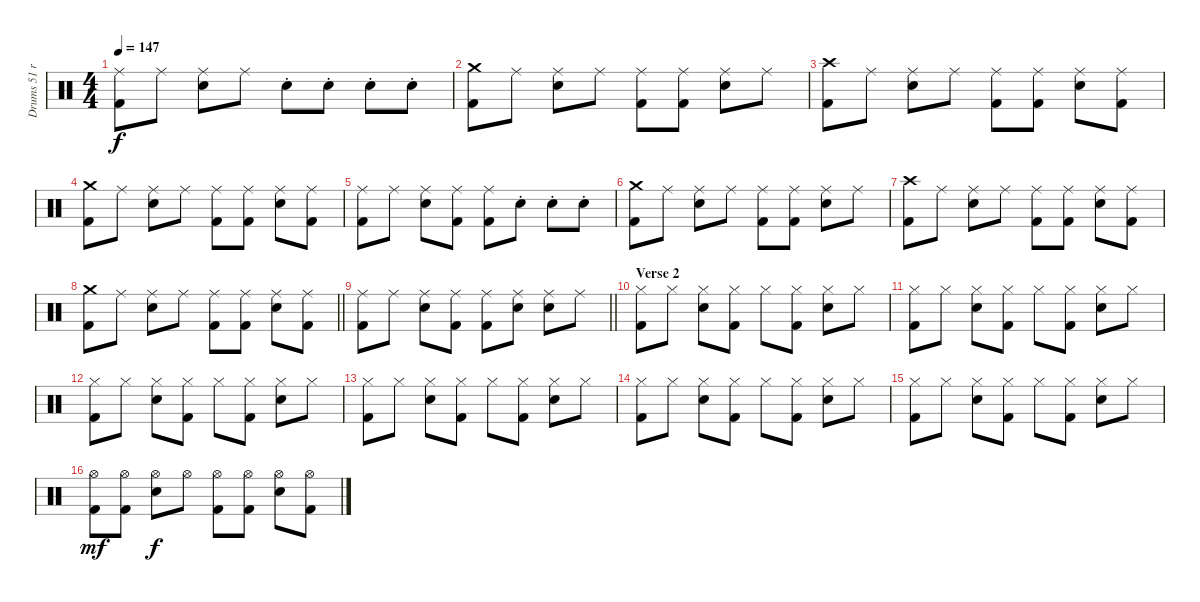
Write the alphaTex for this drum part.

\track ("Drums 51 ride" "Drums 51 r") {mute instrument percussion}
\staff {score}
\articulation defaults
\ts (4 4)
\tempo 147
\clef neutral
\ks c
("Ride (middle)" "Kick (hit) 2").8{dy f} "Ride (middle)".8 ("Ride (middle)" "Snare (hit) 2").8 "Ride (middle)".8 "Snare (hit) 2"{st}.8 "Snare (hit) 2"{st}.8 "Snare (hit) 2"{st}.8 "Snare (hit) 2"{st}.8 |
("Crash medium (hit)" "Kick (hit) 2").8 "Ride (middle)".8 ("Ride (middle)" "Snare (hit) 2").8 "Ride (middle)".8 ("Ride (middle)" "Kick (hit) 2").8 ("Ride (middle)" "Kick (hit) 2").8 ("Ride (middle)" "Snare (hit) 2").8 "Ride (middle)".8 |
("Crash high (hit)" "Kick (hit) 2").8 "Ride (middle)".8 ("Ride (middle)" "Snare (hit) 2").8 "Ride (middle)".8 ("Ride (middle)" "Kick (hit) 2").8 ("Ride (middle)" "Kick (hit) 2").8 ("Ride (middle)" "Snare (hit) 2").8 ("Ride (middle)" "Kick (hit) 2").8 |
("Crash medium (hit)" "Kick (hit) 2").8 "Ride (middle)".8 ("Ride (middle)" "Snare (hit) 2").8 "Ride (middle)".8 ("Ride (middle)" "Kick (hit) 2").8 ("Ride (middle)" "Kick (hit) 2").8 ("Ride (middle)" "Snare (hit) 2").8 ("Ride (middle)" "Kick (hit) 2").8 |
("Ride (middle)" "Kick (hit) 2").8 "Ride (middle)".8 ("Ride (middle)" "Snare (hit) 2").8 ("Ride (middle)" "Kick (hit) 2").8 ("Ride (middle)" "Kick (hit) 2").8 "Snare (hit) 2"{st}.8 "Snare (hit) 2"{st}.8 "Snare (hit) 2"{st}.8 |
("Crash medium (hit)" "Kick (hit) 2").8 "Ride (middle)".8 ("Ride (middle)" "Snare (hit) 2").8 "Ride (middle)".8 ("Ride (middle)" "Kick (hit) 2").8 ("Ride (middle)" "Kick (hit) 2").8 ("Ride (middle)" "Snare (hit) 2").8 "Ride (middle)".8 |
("Crash high (hit)" "Kick (hit) 2").8 "Ride (middle)".8 ("Ride (middle)" "Snare (hit) 2").8 "Ride (middle)".8 ("Ride (middle)" "Kick (hit) 2").8 ("Ride (middle)" "Kick (hit) 2").8 ("Ride (middle)" "Snare (hit) 2").8 ("Ride (middle)" "Kick (hit) 2").8 |
\barLineRight lightlight
("Crash medium (hit)" "Kick (hit) 2").8 "Ride (middle)".8 ("Ride (middle)" "Snare (hit) 2").8 "Ride (middle)".8 ("Ride (middle)" "Kick (hit) 2").8 ("Ride (middle)" "Kick (hit) 2").8 ("Ride (middle)" "Snare (hit) 2").8 ("Ride (middle)" "Kick (hit) 2").8 |
\barLineRight lightlight
("Ride (middle)" "Kick (hit) 2").8 "Ride (middle)".8 ("Ride (middle)" "Snare (hit) 2").8 ("Ride (middle)" "Kick (hit) 2").8 ("Ride (middle)" "Kick (hit) 2").8 ("Ride (middle)" "Snare (hit) 2").8 ("Ride (middle)" "Snare (hit) 2").8 "Ride (middle)".8 |
\section ("" "Verse 2")
("Hi-Hat (closed)" "Kick (hit) 2").8 "Hi-Hat (closed)".8 ("Hi-Hat (closed)" "Snare (hit) 2").8 ("Hi-Hat (closed)" "Kick (hit) 2").8 "Hi-Hat (closed)".8 ("Hi-Hat (closed)" "Kick (hit) 2").8 ("Hi-Hat (closed)" "Snare (hit) 2").8 "Hi-Hat (closed)".8 |
("Hi-Hat (closed)" "Kick (hit) 2").8 "Hi-Hat (closed)".8 ("Hi-Hat (closed)" "Snare (hit) 2").8 ("Hi-Hat (closed)" "Kick (hit) 2").8 "Hi-Hat (closed)".8 ("Hi-Hat (closed)" "Kick (hit) 2").8 ("Hi-Hat (closed)" "Snare (hit) 2").8 "Hi-Hat (closed)".8 |
("Hi-Hat (closed)" "Kick (hit) 2").8 "Hi-Hat (closed)".8 ("Hi-Hat (closed)" "Snare (hit) 2").8 ("Hi-Hat (closed)" "Kick (hit) 2").8 "Hi-Hat (closed)".8 ("Hi-Hat (closed)" "Kick (hit) 2").8 ("Hi-Hat (closed)" "Snare (hit) 2").8 "Hi-Hat (closed)".8 |
("Hi-Hat (closed)" "Kick (hit) 2").8 "Hi-Hat (closed)".8 ("Hi-Hat (closed)" "Snare (hit) 2").8 ("Hi-Hat (closed)" "Kick (hit) 2").8 "Hi-Hat (closed)".8 ("Hi-Hat (closed)" "Kick (hit) 2").8 ("Hi-Hat (closed)" "Snare (hit) 2").8 "Hi-Hat (closed)".8 |
("Hi-Hat (closed)" "Kick (hit) 2").8 "Hi-Hat (closed)".8 ("Hi-Hat (closed)" "Snare (hit) 2").8 ("Hi-Hat (closed)" "Kick (hit) 2").8 "Hi-Hat (closed)".8 ("Hi-Hat (closed)" "Kick (hit) 2").8 ("Hi-Hat (closed)" "Snare (hit) 2").8 "Hi-Hat (closed)".8 |
("Hi-Hat (closed)" "Kick (hit) 2").8 "Hi-Hat (closed)".8 ("Hi-Hat (closed)" "Snare (hit) 2").8 ("Hi-Hat (closed)" "Kick (hit) 2").8 "Hi-Hat (closed)".8 ("Hi-Hat (closed)" "Kick (hit) 2").8 ("Hi-Hat (closed)" "Snare (hit) 2").8 "Hi-Hat (closed)".8 |
("Hi-Hat (open)" "Kick (hit) 2").8{dy mf} ("Hi-Hat (open)" "Kick (hit) 2").8 ("Hi-Hat (open)" "Snare (hit) 2").8{dy f} "Hi-Hat (open)".8 ("Hi-Hat (open)" "Kick (hit) 2").8 ("Hi-Hat (open)" "Kick (hit) 2").8 ("Hi-Hat (open)" "Snare (hit) 2").8 ("Hi-Hat (open)" "Kick (hit) 2").8
